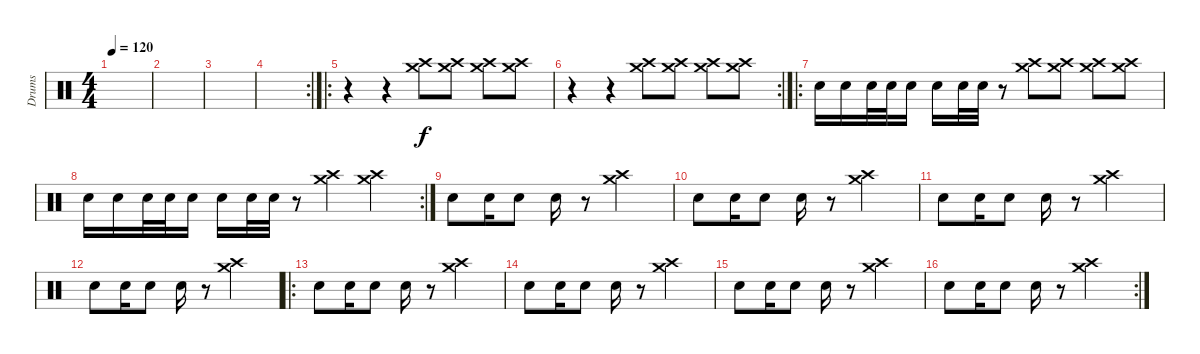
\track ("Drums" "Drums") {instrument percussion}
\staff {score}
\articulation defaults
\ts (4 4)
\tempo 120
\clef neutral
\ks c
|
|
|
\rc 2
|
\ro
r.4 r.4 ("Crash medium (hit)" "Crash high (hit)").8 ("Crash medium (hit)" "Crash high (hit)").8 ("Crash medium (hit)" "Crash high (hit)").8 ("Crash medium (hit)" "Crash high (hit)").8 |
\rc 2
r.4 r.4 ("Crash medium (hit)" "Crash high (hit)").8 ("Crash medium (hit)" "Crash high (hit)").8 ("Crash medium (hit)" "Crash high (hit)").8 ("Crash medium (hit)" "Crash high (hit)").8 |
\ro "Snare (hit) 2".16 "Snare (hit) 2".16 "Snare (hit) 2".32 "Snare (hit) 2".32 "Snare (hit) 2".16 "Snare (hit) 2".16 "Snare (hit) 2".32 "Snare (hit) 2".32
r.8 ("Crash medium (hit)" "Crash high (hit)").8 ("Crash medium (hit)" "Crash high (hit)").8 ("Crash medium (hit)" "Crash high (hit)").8 ("Crash medium (hit)" "Crash high (hit)").8 |
\rc 2 "Snare (hit) 2".16 "Snare (hit) 2".16 "Snare (hit) 2".32 "Snare (hit) 2".32 "Snare (hit) 2".16 "Snare (hit) 2".16 "Snare (hit) 2".32 "Snare (hit) 2".32
r.8 ("Crash medium (hit)" "Crash high (hit)").4 ("Crash medium (hit)" "Crash high (hit)").4 |
"Snare (hit) 2".8 "Snare (hit) 2".16 "Snare (hit) 2".8 "Snare (hit) 2".16 r.8 ("Crash medium (hit)" "Crash high (hit)").2 |
"Snare (hit) 2".8 "Snare (hit) 2".16 "Snare (hit) 2".8 "Snare (hit) 2".16 r.8 ("Crash medium (hit)" "Crash high (hit)").2 |
"Snare (hit) 2".8 "Snare (hit) 2".16 "Snare (hit) 2".8 "Snare (hit) 2".16 r.8 ("Crash medium (hit)" "Crash high (hit)").2 |
"Snare (hit) 2".8 "Snare (hit) 2".16 "Snare (hit) 2".8 "Snare (hit) 2".16 r.8 ("Crash medium (hit)" "Crash high (hit)").2 |
\ro "Snare (hit) 2".8 "Snare (hit) 2".16 "Snare (hit) 2".8 "Snare (hit) 2".16
r.8 ("Crash medium (hit)" "Crash high (hit)").2 |
"Snare (hit) 2".8 "Snare (hit) 2".16 "Snare (hit) 2".8 "Snare (hit) 2".16 r.8 ("Crash medium (hit)" "Crash high (hit)").2 |
"Snare (hit) 2".8 "Snare (hit) 2".16 "Snare (hit) 2".8 "Snare (hit) 2".16 r.8 ("Crash medium (hit)" "Crash high (hit)").2 |
\rc 2 "Snare (hit) 2".8 "Snare (hit) 2".16 "Snare (hit) 2".8 "Snare (hit) 2".16
r.8 ("Crash medium (hit)" "Crash high (hit)").2
